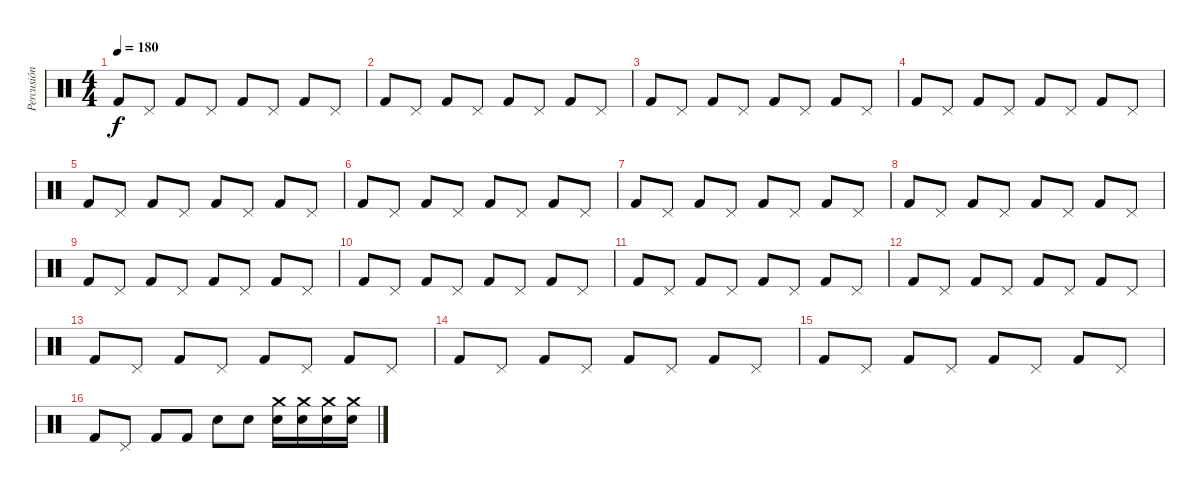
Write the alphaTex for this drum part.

\track ("Percusión" "Percusión") {instrument percussion}
\staff {score}
\articulation defaults
\ts (4 4)
\tempo 180
\clef neutral
\ks c "Kick (hit) 2".8{dy f} "Pedal Hi-Hat (hit)".8 "Kick (hit) 2".8 "Pedal Hi-Hat (hit)".8 "Kick (hit) 2".8 "Pedal Hi-Hat (hit)".8 "Kick (hit) 2".8 "Pedal Hi-Hat (hit)".8
|
"Kick (hit) 2".8 "Pedal Hi-Hat (hit)".8 "Kick (hit) 2".8 "Pedal Hi-Hat (hit)".8 "Kick (hit) 2".8 "Pedal Hi-Hat (hit)".8 "Kick (hit) 2".8 "Pedal Hi-Hat (hit)".8 |
"Kick (hit) 2".8 "Pedal Hi-Hat (hit)".8 "Kick (hit) 2".8 "Pedal Hi-Hat (hit)".8 "Kick (hit) 2".8 "Pedal Hi-Hat (hit)".8 "Kick (hit) 2".8 "Pedal Hi-Hat (hit)".8 |
"Kick (hit) 2".8 "Pedal Hi-Hat (hit)".8 "Kick (hit) 2".8 "Pedal Hi-Hat (hit)".8 "Kick (hit) 2".8 "Pedal Hi-Hat (hit)".8 "Kick (hit) 2".8 "Pedal Hi-Hat (hit)".8 |
"Kick (hit) 2".8 "Pedal Hi-Hat (hit)".8 "Kick (hit) 2".8 "Pedal Hi-Hat (hit)".8 "Kick (hit) 2".8 "Pedal Hi-Hat (hit)".8 "Kick (hit) 2".8 "Pedal Hi-Hat (hit)".8 |
"Kick (hit) 2".8 "Pedal Hi-Hat (hit)".8 "Kick (hit) 2".8 "Pedal Hi-Hat (hit)".8 "Kick (hit) 2".8 "Pedal Hi-Hat (hit)".8 "Kick (hit) 2".8 "Pedal Hi-Hat (hit)".8 |
"Kick (hit) 2".8 "Pedal Hi-Hat (hit)".8 "Kick (hit) 2".8 "Pedal Hi-Hat (hit)".8 "Kick (hit) 2".8 "Pedal Hi-Hat (hit)".8 "Kick (hit) 2".8 "Pedal Hi-Hat (hit)".8 |
"Kick (hit) 2".8 "Pedal Hi-Hat (hit)".8 "Kick (hit) 2".8 "Pedal Hi-Hat (hit)".8 "Kick (hit) 2".8 "Pedal Hi-Hat (hit)".8 "Kick (hit) 2".8 "Pedal Hi-Hat (hit)".8 |
"Kick (hit) 2".8 "Pedal Hi-Hat (hit)".8 "Kick (hit) 2".8 "Pedal Hi-Hat (hit)".8 "Kick (hit) 2".8 "Pedal Hi-Hat (hit)".8 "Kick (hit) 2".8 "Pedal Hi-Hat (hit)".8 |
"Kick (hit) 2".8 "Pedal Hi-Hat (hit)".8 "Kick (hit) 2".8 "Pedal Hi-Hat (hit)".8 "Kick (hit) 2".8 "Pedal Hi-Hat (hit)".8 "Kick (hit) 2".8 "Pedal Hi-Hat (hit)".8 |
"Kick (hit) 2".8 "Pedal Hi-Hat (hit)".8 "Kick (hit) 2".8 "Pedal Hi-Hat (hit)".8 "Kick (hit) 2".8 "Pedal Hi-Hat (hit)".8 "Kick (hit) 2".8 "Pedal Hi-Hat (hit)".8 |
"Kick (hit) 2".8 "Pedal Hi-Hat (hit)".8 "Kick (hit) 2".8 "Pedal Hi-Hat (hit)".8 "Kick (hit) 2".8 "Pedal Hi-Hat (hit)".8 "Kick (hit) 2".8 "Pedal Hi-Hat (hit)".8 |
"Kick (hit) 2".8 "Pedal Hi-Hat (hit)".8 "Kick (hit) 2".8 "Pedal Hi-Hat (hit)".8 "Kick (hit) 2".8 "Pedal Hi-Hat (hit)".8 "Kick (hit) 2".8 "Pedal Hi-Hat (hit)".8 |
"Kick (hit) 2".8 "Pedal Hi-Hat (hit)".8 "Kick (hit) 2".8 "Pedal Hi-Hat (hit)".8 "Kick (hit) 2".8 "Pedal Hi-Hat (hit)".8 "Kick (hit) 2".8 "Pedal Hi-Hat (hit)".8 |
"Kick (hit) 2".8 "Pedal Hi-Hat (hit)".8 "Kick (hit) 2".8 "Pedal Hi-Hat (hit)".8 "Kick (hit) 2".8 "Pedal Hi-Hat (hit)".8 "Kick (hit) 2".8 "Pedal Hi-Hat (hit)".8 |
"Kick (hit) 2".8 "Pedal Hi-Hat (hit)".8 "Kick (hit) 2".8 "Kick (hit) 2".8 "Snare (hit) 2".8 "Snare (hit) 2".8 ("Snare (hit) 2" "Crash medium (hit)").16 ("Snare (hit) 2" "Crash medium (hit)").16 ("Snare (hit) 2" "Crash medium (hit)").16 ("Snare (hit) 2" "Crash medium (hit)").16
